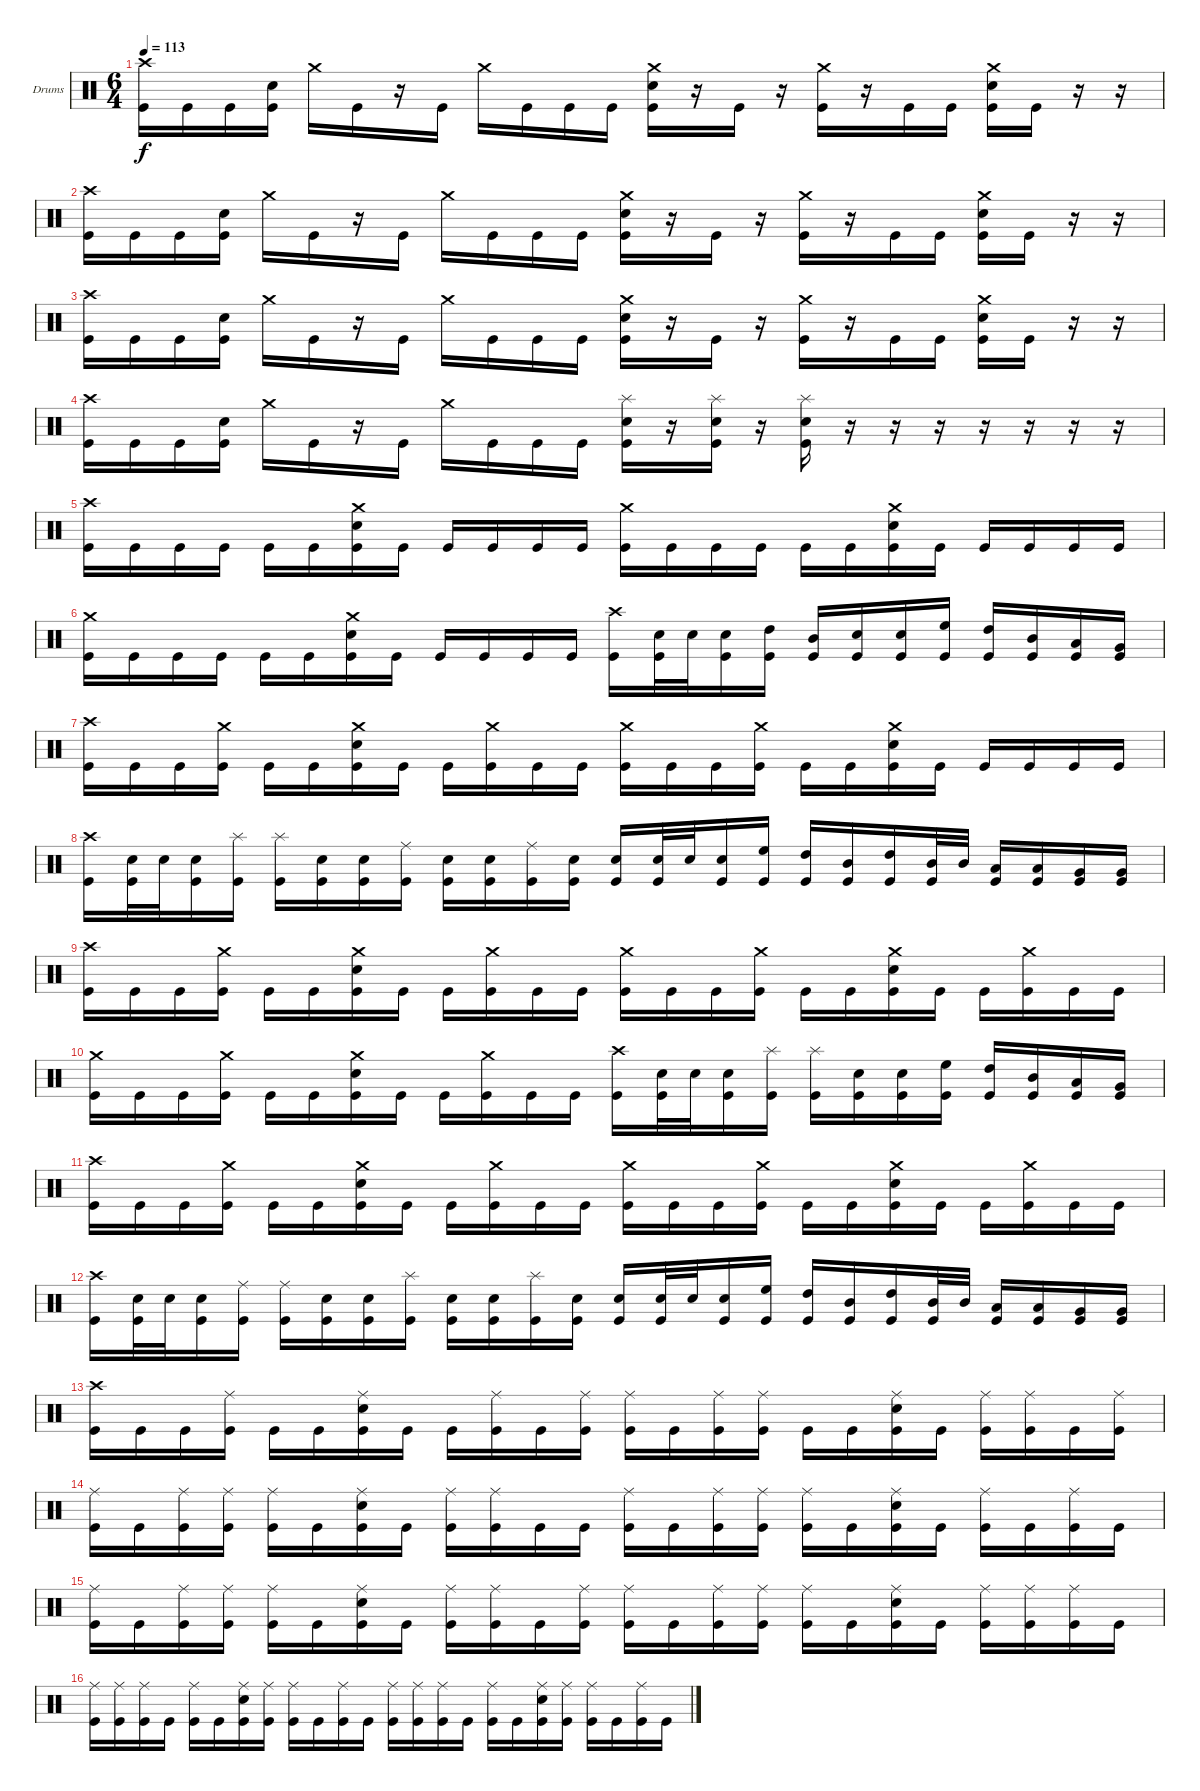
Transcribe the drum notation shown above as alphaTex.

\bracketExtendMode groupsimilarinstruments
\firstSystemTrackNameOrientation horizontal
\otherSystemsTrackNameOrientation horizontal
\track ("Drumkit" "Drums") {instrument percussion}
\staff {score}
\articulation defaults
\ts (6 4)
\tempo 113
\clef neutral
\ks c
("Crash high (hit)" "Kick (hit)").16{dy f} "Kick (hit)".16 "Kick (hit)".16 ("Snare (hit) 2" "Kick (hit)").16 "Crash medium (hit)".16 "Kick (hit)".16 r.16 "Kick (hit)".16 "Crash medium (hit)".16 "Kick (hit)".16 "Kick (hit)".16 "Kick (hit)".16 ("Crash medium (hit)" "Snare (hit) 2" "Kick (hit)").16 r.16 "Kick (hit)".16 r.16 ("Crash medium (hit)" "Kick (hit)").16 r.16 "Kick (hit)".16 "Kick (hit)".16 ("Crash medium (hit)" "Snare (hit) 2" "Kick (hit)").16 "Kick (hit)".16 r.16 r.16 |
("Crash high (hit)" "Kick (hit)").16 "Kick (hit)".16 "Kick (hit)".16 ("Snare (hit) 2" "Kick (hit)").16 "Crash medium (hit)".16 "Kick (hit)".16 r.16 "Kick (hit)".16 "Crash medium (hit)".16 "Kick (hit)".16 "Kick (hit)".16 "Kick (hit)".16 ("Crash medium (hit)" "Snare (hit) 2" "Kick (hit)").16 r.16 "Kick (hit)".16 r.16 ("Crash medium (hit)" "Kick (hit)").16 r.16 "Kick (hit)".16 "Kick (hit)".16 ("Crash medium (hit)" "Snare (hit) 2" "Kick (hit)").16 "Kick (hit)".16 r.16 r.16 |
("Crash high (hit)" "Kick (hit)").16 "Kick (hit)".16 "Kick (hit)".16 ("Snare (hit) 2" "Kick (hit)").16 "Crash medium (hit)".16 "Kick (hit)".16 r.16 "Kick (hit)".16 "Crash medium (hit)".16 "Kick (hit)".16 "Kick (hit)".16 "Kick (hit)".16 ("Crash medium (hit)" "Snare (hit) 2" "Kick (hit)").16 r.16 "Kick (hit)".16 r.16 ("Crash medium (hit)" "Kick (hit)").16 r.16 "Kick (hit)".16 "Kick (hit)".16 ("Crash medium (hit)" "Snare (hit) 2" "Kick (hit)").16 "Kick (hit)".16 r.16 r.16 |
("Crash high (hit)" "Kick (hit)").16 "Kick (hit)".16 "Kick (hit)".16 ("Snare (hit) 2" "Kick (hit)").16 "Crash medium (hit)".16 "Kick (hit)".16 r.16 "Kick (hit)".16 "Crash medium (hit)".16 "Kick (hit)".16 "Kick (hit)".16 "Kick (hit)".16 ("Splash (hit)" "Snare (hit) 2" "Kick (hit)").16 r.16 ("Splash (hit)" "Snare (hit) 2" "Kick (hit)").16 r.16 ("Splash (hit)" "Snare (hit) 2" "Kick (hit)").16 r.16 r.16 r.16 r.16 r.16 r.16 r.16 |
("Crash high (hit)" "Kick (hit)").16 "Kick (hit)".16 "Kick (hit)".16 "Kick (hit)".16 "Kick (hit)".16 "Kick (hit)".16 ("Crash medium (hit)" "Snare (hit) 2" "Kick (hit)").16 "Kick (hit)".16 "Kick (hit)".16 "Kick (hit)".16 "Kick (hit)".16 "Kick (hit)".16 ("Crash medium (hit)" "Kick (hit)").16 "Kick (hit)".16 "Kick (hit)".16 "Kick (hit)".16 "Kick (hit)".16 "Kick (hit)".16 ("Crash medium (hit)" "Snare (hit) 2" "Kick (hit)").16 "Kick (hit)".16 "Kick (hit)".16 "Kick (hit)".16 "Kick (hit)".16 "Kick (hit)".16 |
("Crash medium (hit)" "Kick (hit)").16 "Kick (hit)".16 "Kick (hit)".16 "Kick (hit)".16 "Kick (hit)".16 "Kick (hit)".16 ("Crash medium (hit)" "Snare (hit) 2" "Kick (hit)").16 "Kick (hit)".16 "Kick (hit)".16 "Kick (hit)".16 "Kick (hit)".16 "Kick (hit)".16 ("Crash high (hit)" "Kick (hit)").16 ("Snare (hit) 2" "Kick (hit)").32 "Snare (hit) 2".32 ("Snare (hit) 2" "Kick (hit)").16 ("High Tom (hit)" "Kick (hit)").16 ("Mid Tom (hit)" "Kick (hit)").16 ("Snare (hit) 2" "Kick (hit)").16 ("Snare (hit) 2" "Kick (hit)").16 ("High Floor Tom (hit)" "Kick (hit)").16 ("High Tom (hit)" "Kick (hit)").16 ("Mid Tom (hit)" "Kick (hit)").16 ("Low Tom (hit)" "Kick (hit)").16 ("Very Low Tom (hit)" "Kick (hit)").16 |
("Crash high (hit)" "Kick (hit)").16 "Kick (hit)".16 "Kick (hit)".16 ("Crash medium (hit)" "Kick (hit)").16 "Kick (hit)".16 "Kick (hit)".16 ("Crash medium (hit)" "Snare (hit) 2" "Kick (hit)").16 "Kick (hit)".16 "Kick (hit)".16 ("Crash medium (hit)" "Kick (hit)").16 "Kick (hit)".16 "Kick (hit)".16 ("Crash medium (hit)" "Kick (hit)").16 "Kick (hit)".16 "Kick (hit)".16 ("Crash medium (hit)" "Kick (hit)").16 "Kick (hit)".16 "Kick (hit)".16 ("Crash medium (hit)" "Snare (hit) 2" "Kick (hit)").16 "Kick (hit)".16 "Kick (hit)".16 "Kick (hit)".16 "Kick (hit)".16 "Kick (hit)".16 |
("Crash high (hit)" "Kick (hit)").16 ("Snare (hit) 2" "Kick (hit)").32 "Snare (hit) 2".32 ("Snare (hit) 2" "Kick (hit)").16 ("Splash (hit)" "Kick (hit)").16 ("Splash (hit)" "Kick (hit)").16 ("Snare (hit) 2" "Kick (hit)").16 ("Snare (hit) 2" "Kick (hit)").16 ("Ride (middle)" "Kick (hit)").16 ("Snare (hit) 2" "Kick (hit)").16 ("Snare (hit) 2" "Kick (hit)").16 ("Ride (middle)" "Kick (hit)").16 ("Snare (hit) 2" "Kick (hit)").16 ("Snare (hit) 2" "Kick (hit)").16 ("Snare (hit) 2" "Kick (hit)").32 "Snare (hit) 2".32 ("Snare (hit) 2" "Kick (hit)").16 ("High Floor Tom (hit)" "Kick (hit)").16 ("High Tom (hit)" "Kick (hit)").16 ("Mid Tom (hit)" "Kick (hit)").16 ("High Tom (hit)" "Kick (hit)").16 ("Mid Tom (hit)" "Kick (hit)").32 "Mid Tom (hit)".32 ("Low Tom (hit)" "Kick (hit)").16 ("Low Tom (hit)" "Kick (hit)").16 ("Very Low Tom (hit)" "Kick (hit)").16 ("Very Low Tom (hit)" "Kick (hit)").16 |
("Crash high (hit)" "Kick (hit)").16 "Kick (hit)".16 "Kick (hit)".16 ("Crash medium (hit)" "Kick (hit)").16 "Kick (hit)".16 "Kick (hit)".16 ("Crash medium (hit)" "Snare (hit) 2" "Kick (hit)").16 "Kick (hit)".16 "Kick (hit)".16 ("Crash medium (hit)" "Kick (hit)").16 "Kick (hit)".16 "Kick (hit)".16 ("Crash medium (hit)" "Kick (hit)").16 "Kick (hit)".16 "Kick (hit)".16 ("Crash medium (hit)" "Kick (hit)").16 "Kick (hit)".16 "Kick (hit)".16 ("Crash medium (hit)" "Snare (hit) 2" "Kick (hit)").16 "Kick (hit)".16 "Kick (hit)".16 ("Crash medium (hit)" "Kick (hit)").16 "Kick (hit)".16 "Kick (hit)".16 |
("Crash medium (hit)" "Kick (hit)").16 "Kick (hit)".16 "Kick (hit)".16 ("Crash medium (hit)" "Kick (hit)").16 "Kick (hit)".16 "Kick (hit)".16 ("Crash medium (hit)" "Snare (hit) 2" "Kick (hit)").16 "Kick (hit)".16 "Kick (hit)".16 ("Crash medium (hit)" "Kick (hit)").16 "Kick (hit)".16 "Kick (hit)".16 ("Crash high (hit)" "Kick (hit)").16 ("Snare (hit) 2" "Kick (hit)").32 "Snare (hit) 2".32 ("Snare (hit) 2" "Kick (hit)").16 ("Splash (hit)" "Kick (hit)").16 ("Splash (hit)" "Kick (hit)").16 ("Snare (hit) 2" "Kick (hit)").16 ("Snare (hit) 2" "Kick (hit)").16 ("High Floor Tom (hit)" "Kick (hit)").16 ("High Tom (hit)" "Kick (hit)").16 ("Mid Tom (hit)" "Kick (hit)").16 ("Low Tom (hit)" "Kick (hit)").16 ("Very Low Tom (hit)" "Kick (hit)").16 |
("Crash high (hit)" "Kick (hit)").16 "Kick (hit)".16 "Kick (hit)".16 ("Crash medium (hit)" "Kick (hit)").16 "Kick (hit)".16 "Kick (hit)".16 ("Crash medium (hit)" "Snare (hit) 2" "Kick (hit)").16 "Kick (hit)".16 "Kick (hit)".16 ("Crash medium (hit)" "Kick (hit)").16 "Kick (hit)".16 "Kick (hit)".16 ("Crash medium (hit)" "Kick (hit)").16 "Kick (hit)".16 "Kick (hit)".16 ("Crash medium (hit)" "Kick (hit)").16 "Kick (hit)".16 "Kick (hit)".16 ("Crash medium (hit)" "Snare (hit) 2" "Kick (hit)").16 "Kick (hit)".16 "Kick (hit)".16 ("Crash medium (hit)" "Kick (hit)").16 "Kick (hit)".16 "Kick (hit)".16 |
("Crash high (hit)" "Kick (hit)").16 ("Snare (hit) 2" "Kick (hit)").32 "Snare (hit) 2".32 ("Snare (hit) 2" "Kick (hit)").16 ("Ride (middle)" "Kick (hit)").16 ("Ride (middle)" "Kick (hit)").16 ("Snare (hit) 2" "Kick (hit)").16 ("Snare (hit) 2" "Kick (hit)").16 ("Splash (hit)" "Kick (hit)").16 ("Snare (hit) 2" "Kick (hit)").16 ("Snare (hit) 2" "Kick (hit)").16 ("Splash (hit)" "Kick (hit)").16 ("Snare (hit) 2" "Kick (hit)").16 ("Snare (hit) 2" "Kick (hit)").16 ("Snare (hit) 2" "Kick (hit)").32 "Snare (hit) 2".32 ("Snare (hit) 2" "Kick (hit)").16 ("High Floor Tom (hit)" "Kick (hit)").16 ("High Tom (hit)" "Kick (hit)").16 ("Mid Tom (hit)" "Kick (hit)").16 ("High Tom (hit)" "Kick (hit)").16 ("Mid Tom (hit)" "Kick (hit)").32 "Mid Tom (hit)".32 ("Low Tom (hit)" "Kick (hit)").16 ("Low Tom (hit)" "Kick (hit)").16 ("Very Low Tom (hit)" "Kick (hit)").16 ("Very Low Tom (hit)" "Kick (hit)").16 |
("Crash high (hit)" "Kick (hit)").16 "Kick (hit)".16 "Kick (hit)".16 ("Ride (middle)" "Kick (hit)").16 "Kick (hit)".16 "Kick (hit)".16 ("Ride (middle)" "Snare (hit) 2" "Kick (hit)").16 "Kick (hit)".16 "Kick (hit)".16 ("Ride (middle)" "Kick (hit)").16 "Kick (hit)".16 ("Ride (middle)" "Kick (hit)").16 ("Ride (middle)" "Kick (hit)").16 "Kick (hit)".16 ("Ride (middle)" "Kick (hit)").16 ("Ride (middle)" "Kick (hit)").16 "Kick (hit)".16 "Kick (hit)".16 ("Ride (middle)" "Snare (hit) 2" "Kick (hit)").16 "Kick (hit)".16 ("Ride (middle)" "Kick (hit)").16 ("Ride (middle)" "Kick (hit)").16 "Kick (hit)".16 ("Ride (middle)" "Kick (hit)").16 |
("Ride (middle)" "Kick (hit)").16 "Kick (hit)".16 ("Ride (middle)" "Kick (hit)").16 ("Ride (middle)" "Kick (hit)").16 ("Ride (middle)" "Kick (hit)").16 "Kick (hit)".16 ("Ride (middle)" "Snare (hit) 2" "Kick (hit)").16 "Kick (hit)".16 ("Ride (middle)" "Kick (hit)").16 ("Ride (middle)" "Kick (hit)").16 "Kick (hit)".16 "Kick (hit)".16 ("Ride (middle)" "Kick (hit)").16 "Kick (hit)".16 ("Ride (middle)" "Kick (hit)").16 ("Ride (middle)" "Kick (hit)").16 ("Ride (middle)" "Kick (hit)").16 "Kick (hit)".16 ("Ride (middle)" "Snare (hit) 2" "Kick (hit)").16 "Kick (hit)".16 ("Ride (middle)" "Kick (hit)").16 "Kick (hit)".16 ("Ride (middle)" "Kick (hit)").16 "Kick (hit)".16 |
("Ride (middle)" "Kick (hit)").16 "Kick (hit)".16 ("Ride (middle)" "Kick (hit)").16 ("Ride (middle)" "Kick (hit)").16 ("Ride (middle)" "Kick (hit)").16 "Kick (hit)".16 ("Ride (middle)" "Snare (hit) 2" "Kick (hit)").16 "Kick (hit)".16 ("Ride (middle)" "Kick (hit)").16 ("Ride (middle)" "Kick (hit)").16 "Kick (hit)".16 ("Ride (middle)" "Kick (hit)").16 ("Ride (middle)" "Kick (hit)").16 "Kick (hit)".16 ("Ride (middle)" "Kick (hit)").16 ("Ride (middle)" "Kick (hit)").16 ("Ride (middle)" "Kick (hit)").16 "Kick (hit)".16 ("Ride (middle)" "Snare (hit) 2" "Kick (hit)").16 "Kick (hit)".16 ("Ride (middle)" "Kick (hit)").16 ("Ride (middle)" "Kick (hit)").16 ("Ride (middle)" "Kick (hit)").16 "Kick (hit)".16 |
("Ride (middle)" "Kick (hit)").16 ("Ride (middle)" "Kick (hit)").16 ("Ride (middle)" "Kick (hit)").16 "Kick (hit)".16 ("Ride (middle)" "Kick (hit)").16 "Kick (hit)".16 ("Ride (middle)" "Snare (hit) 2" "Kick (hit)").16 ("Ride (middle)" "Kick (hit)").16 ("Ride (middle)" "Kick (hit)").16 "Kick (hit)".16 ("Ride (middle)" "Kick (hit)").16 "Kick (hit)".16 ("Ride (middle)" "Kick (hit)").16 ("Ride (middle)" "Kick (hit)").16 ("Ride (middle)" "Kick (hit)").16 "Kick (hit)".16 ("Ride (middle)" "Kick (hit)").16 "Kick (hit)".16 ("Ride (middle)" "Snare (hit) 2" "Kick (hit)").16 ("Ride (middle)" "Kick (hit)").16 ("Ride (middle)" "Kick (hit)").16 "Kick (hit)".16 ("Ride (middle)" "Kick (hit)").16 "Kick (hit)".16
